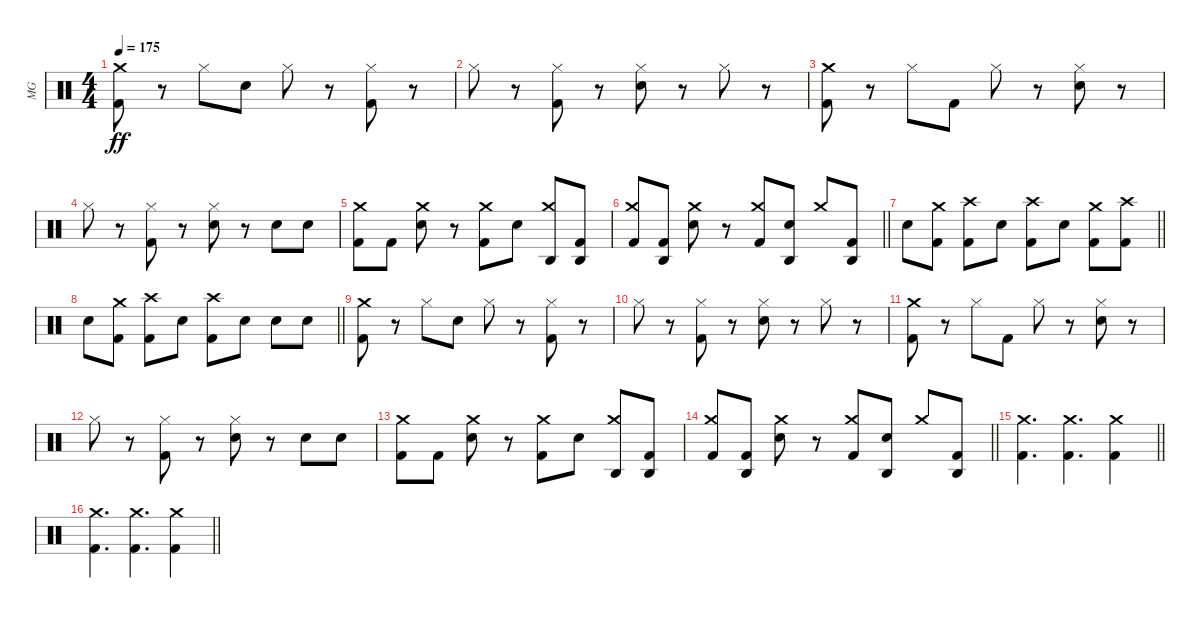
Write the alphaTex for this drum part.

\track ("MG" "MG") {instrument percussion}
\staff {score}
\articulation defaults
\ts (4 4)
\section ("" "")
\tempo 175
\clef neutral
\ks c
("Crash medium (hit)" "Kick (hit) 2").8{dy ff} r.8 "Hi-Hat (closed)".8 "Electric Snare (hit)".8 "Hi-Hat (closed)".8 r.8 ("Hi-Hat (closed)" "Kick (hit) 2").8 r.8 |
"Hi-Hat (closed)".8 r.8 ("Hi-Hat (closed)" "Kick (hit) 2").8 r.8 ("Hi-Hat (closed)" "Electric Snare (hit)").8 r.8 "Hi-Hat (closed)".8 r.8 |
("Crash medium (hit)" "Kick (hit) 2").8 r.8 "Hi-Hat (closed)".8 "Kick (hit) 2".8 "Hi-Hat (closed)".8 r.8 ("Hi-Hat (closed)" "Electric Snare (hit)").8 r.8 |
"Hi-Hat (closed)".8 r.8 ("Hi-Hat (closed)" "Kick (hit) 2").8 r.8 ("Hi-Hat (closed)" "Electric Snare (hit)").8 r.8 "Electric Snare (hit)".8 "Electric Snare (hit)".8 |
("Crash medium (hit)" "Kick (hit) 2").8 "Kick (hit) 2".8 ("Crash medium (hit)" "Electric Snare (hit)").8 r.8 ("Crash medium (hit)" "Kick (hit) 2").8 "Electric Snare (hit)".8 ("Crash medium (hit)" "Agogo high (hit)").8 ("Agogo high (hit)" "Kick (hit) 2").8 |
\barLineRight lightlight
("Crash medium (hit)" "Kick (hit) 2").8 ("Agogo high (hit)" "Kick (hit) 2").8 ("Crash medium (hit)" "Electric Snare (hit)").8 r.8 ("Crash medium (hit)" "Kick (hit) 2").8 ("Agogo high (hit)" "Electric Snare (hit)").8 "Crash medium (hit)".8 ("Agogo high (hit)" "Kick (hit) 2").8 |
\barLineRight lightlight "Electric Snare (hit)".8
("Crash medium (hit)" "Kick (hit) 2").8 ("Crash high (hit)" "Kick (hit) 2").8 "Electric Snare (hit)".8 ("Crash high (hit)" "Kick (hit) 2").8 "Electric Snare (hit)".8 ("Crash medium (hit)" "Kick (hit) 2").8 ("Crash high (hit)" "Kick (hit) 2").8 |
\barLineRight lightlight "Electric Snare (hit)".8
("Crash medium (hit)" "Kick (hit) 2").8 ("Crash high (hit)" "Kick (hit) 2").8 "Electric Snare (hit)".8 ("Crash high (hit)" "Kick (hit) 2").8 "Electric Snare (hit)".8 "Electric Snare (hit)".8 "Electric Snare (hit)".8 |
\section ("" "")
("Crash medium (hit)" "Kick (hit) 2").8 r.8 "Hi-Hat (closed)".8 "Electric Snare (hit)".8 "Hi-Hat (closed)".8 r.8 ("Hi-Hat (closed)" "Kick (hit) 2").8 r.8 |
"Hi-Hat (closed)".8 r.8 ("Hi-Hat (closed)" "Kick (hit) 2").8 r.8 ("Hi-Hat (closed)" "Electric Snare (hit)").8 r.8 "Hi-Hat (closed)".8 r.8 |
("Crash medium (hit)" "Kick (hit) 2").8 r.8 "Hi-Hat (closed)".8 "Kick (hit) 2".8 "Hi-Hat (closed)".8 r.8 ("Hi-Hat (closed)" "Electric Snare (hit)").8 r.8 |
"Hi-Hat (closed)".8 r.8 ("Hi-Hat (closed)" "Kick (hit) 2").8 r.8 ("Hi-Hat (closed)" "Electric Snare (hit)").8 r.8 "Electric Snare (hit)".8 "Electric Snare (hit)".8 |
("Crash medium (hit)" "Kick (hit) 2").8 "Kick (hit) 2".8 ("Crash medium (hit)" "Electric Snare (hit)").8 r.8 ("Crash medium (hit)" "Kick (hit) 2").8 "Electric Snare (hit)".8 ("Crash medium (hit)" "Agogo high (hit)").8 ("Agogo high (hit)" "Kick (hit) 2").8 |
\barLineRight lightlight
("Crash medium (hit)" "Kick (hit) 2").8 ("Agogo high (hit)" "Kick (hit) 2").8 ("Crash medium (hit)" "Electric Snare (hit)").8 r.8 ("Crash medium (hit)" "Kick (hit) 2").8 ("Agogo high (hit)" "Electric Snare (hit)").8 "Crash medium (hit)".8 ("Agogo high (hit)" "Kick (hit) 2").8 |
\section ("" "")
\barLineRight lightlight
("Crash medium (hit)" "Kick (hit) 2").4{d} ("Crash medium (hit)" "Kick (hit) 2").4{d} ("Crash medium (hit)" "Kick (hit) 2").4 |
\barLineRight lightlight
("Crash medium (hit)" "Kick (hit) 2").4{d} ("Crash medium (hit)" "Kick (hit) 2").4{d} ("Crash medium (hit)" "Kick (hit) 2").4
